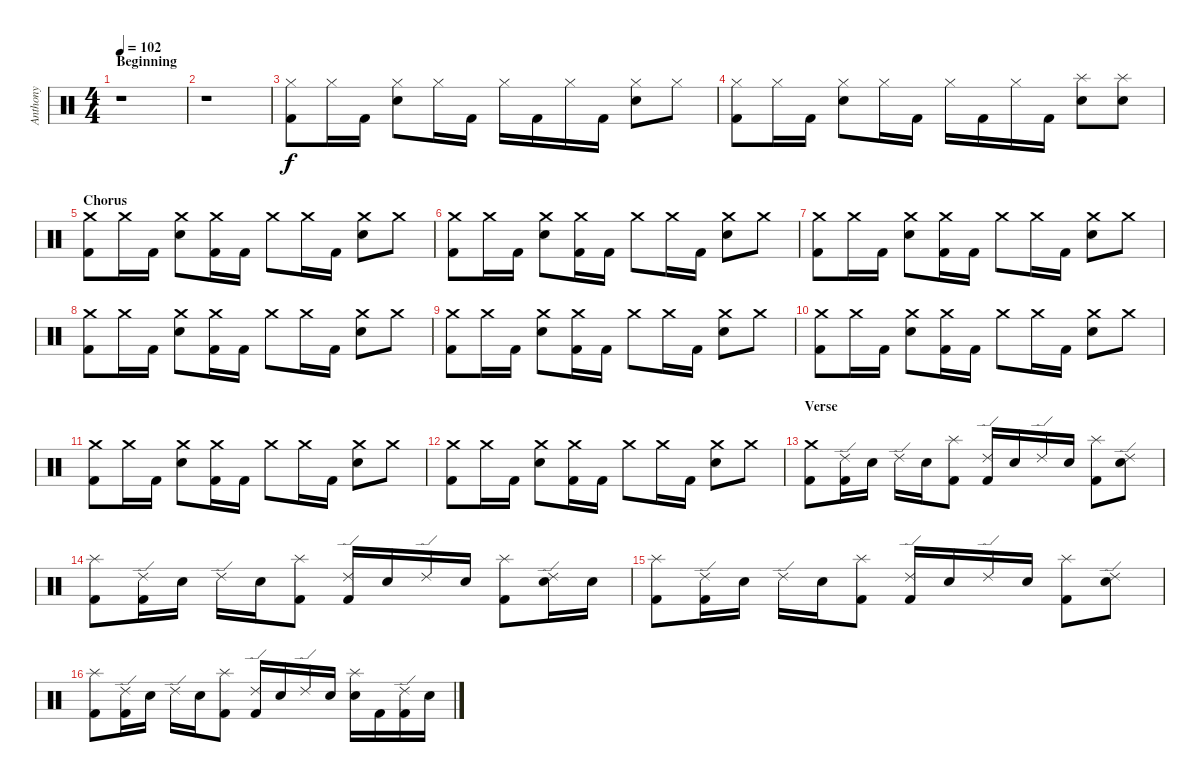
\track ("Anthony" "Anthony") {instrument percussion}
\staff {score}
\articulation defaults
\ts (4 4)
\section ("" "Beginning")
\tempo 102
\clef neutral
\ks c
r.1{dy f} |
r.1 |
("Hi-Hat (closed)" "Kick (hit) 2").8 "Hi-Hat (closed)".16 "Kick (hit) 2".16 ("Hi-Hat (closed)" "Electric Snare (hit)").8 "Hi-Hat (closed)".16 "Kick (hit) 2".16 "Hi-Hat (closed)".16 "Kick (hit) 2".16 "Hi-Hat (closed)".16 "Kick (hit) 2".16 ("Hi-Hat (closed)" "Electric Snare (hit)").8 "Hi-Hat (closed)".8 |
("Hi-Hat (closed)" "Kick (hit) 2").8 "Hi-Hat (closed)".16 "Kick (hit) 2".16 ("Hi-Hat (closed)" "Electric Snare (hit)").8 "Hi-Hat (closed)".16 "Kick (hit) 2".16 "Hi-Hat (closed)".16 "Kick (hit) 2".16 "Hi-Hat (closed)".16 "Kick (hit) 2".16 ("Splash (hit)" "Electric Snare (hit)").8 ("Splash (hit)" "Electric Snare (hit)").8 |
\section ("" "Chorus")
("Crash medium (hit)" "Kick (hit) 2").8 "Crash medium (hit)".16 "Kick (hit) 2".16 ("Crash medium (hit)" "Electric Snare (hit)").8 ("Crash medium (hit)" "Kick (hit) 2").16 "Kick (hit) 2".16 "Crash medium (hit)".8 "Crash medium (hit)".16 "Kick (hit) 2".16 ("Crash medium (hit)" "Electric Snare (hit)").8 "Crash medium (hit)".8 |
("Crash medium (hit)" "Kick (hit) 2").8 "Crash medium (hit)".16 "Kick (hit) 2".16 ("Crash medium (hit)" "Electric Snare (hit)").8 ("Crash medium (hit)" "Kick (hit) 2").16 "Kick (hit) 2".16 "Crash medium (hit)".8 "Crash medium (hit)".16 "Kick (hit) 2".16 ("Crash medium (hit)" "Electric Snare (hit)").8 "Crash medium (hit)".8 |
("Crash medium (hit)" "Kick (hit) 2").8 "Crash medium (hit)".16 "Kick (hit) 2".16 ("Crash medium (hit)" "Electric Snare (hit)").8 ("Crash medium (hit)" "Kick (hit) 2").16 "Kick (hit) 2".16 "Crash medium (hit)".8 "Crash medium (hit)".16 "Kick (hit) 2".16 ("Crash medium (hit)" "Electric Snare (hit)").8 "Crash medium (hit)".8 |
("Crash medium (hit)" "Kick (hit) 2").8 "Crash medium (hit)".16 "Kick (hit) 2".16 ("Crash medium (hit)" "Electric Snare (hit)").8 ("Crash medium (hit)" "Kick (hit) 2").16 "Kick (hit) 2".16 "Crash medium (hit)".8 "Crash medium (hit)".16 "Kick (hit) 2".16 ("Crash medium (hit)" "Electric Snare (hit)").8 "Crash medium (hit)".8 |
("Crash medium (hit)" "Kick (hit) 2").8 "Crash medium (hit)".16 "Kick (hit) 2".16 ("Crash medium (hit)" "Electric Snare (hit)").8 ("Crash medium (hit)" "Kick (hit) 2").16 "Kick (hit) 2".16 "Crash medium (hit)".8 "Crash medium (hit)".16 "Kick (hit) 2".16 ("Crash medium (hit)" "Electric Snare (hit)").8 "Crash medium (hit)".8 |
("Crash medium (hit)" "Kick (hit) 2").8 "Crash medium (hit)".16 "Kick (hit) 2".16 ("Crash medium (hit)" "Electric Snare (hit)").8 ("Crash medium (hit)" "Kick (hit) 2").16 "Kick (hit) 2".16 "Crash medium (hit)".8 "Crash medium (hit)".16 "Kick (hit) 2".16 ("Crash medium (hit)" "Electric Snare (hit)").8 "Crash medium (hit)".8 |
("Crash medium (hit)" "Kick (hit) 2").8 "Crash medium (hit)".16 "Kick (hit) 2".16 ("Crash medium (hit)" "Electric Snare (hit)").8 ("Crash medium (hit)" "Kick (hit) 2").16 "Kick (hit) 2".16 "Crash medium (hit)".8 "Crash medium (hit)".16 "Kick (hit) 2".16 ("Crash medium (hit)" "Electric Snare (hit)").8 "Crash medium (hit)".8 |
("Crash medium (hit)" "Kick (hit) 2").8 "Crash medium (hit)".16 "Kick (hit) 2".16 ("Crash medium (hit)" "Electric Snare (hit)").8 ("Crash medium (hit)" "Kick (hit) 2").16 "Kick (hit) 2".16 "Crash medium (hit)".8 "Crash medium (hit)".16 "Kick (hit) 2".16 ("Crash medium (hit)" "Electric Snare (hit)").8 "Crash medium (hit)".8 |
\section ("" "Verse")
("Crash medium (hit)" "Kick (hit) 2").8 ("Ride (edge) 2" "Kick (hit) 2").16 "Electric Snare (hit)".16 "Ride (edge) 2".16 "Electric Snare (hit)".16 ("Splash (hit)" "Kick (hit) 2").8 ("Ride (edge) 2" "Kick (hit) 2").16 "Electric Snare (hit)".16 "Ride (edge) 2".16 "Electric Snare (hit)".16 ("Splash (hit)" "Kick (hit) 2").8 ("Ride (edge) 2" "Electric Snare (hit)").8 |
("Splash (hit)" "Kick (hit) 2").8 ("Ride (edge) 2" "Kick (hit) 2").16 "Electric Snare (hit)".16 "Ride (edge) 2".16 "Electric Snare (hit)".16 ("Splash (hit)" "Kick (hit) 2").8 ("Ride (edge) 2" "Kick (hit) 2").16 "Electric Snare (hit)".16 "Ride (edge) 2".16 "Electric Snare (hit)".16 ("Splash (hit)" "Kick (hit) 2").8 ("Ride (edge) 2" "Electric Snare (hit)").16 "Electric Snare (hit)".16 |
("Splash (hit)" "Kick (hit) 2").8 ("Ride (edge) 2" "Kick (hit) 2").16 "Electric Snare (hit)".16 "Ride (edge) 2".16 "Electric Snare (hit)".16 ("Splash (hit)" "Kick (hit) 2").8 ("Ride (edge) 2" "Kick (hit) 2").16 "Electric Snare (hit)".16 "Ride (edge) 2".16 "Electric Snare (hit)".16 ("Splash (hit)" "Kick (hit) 2").8 ("Ride (edge) 2" "Electric Snare (hit)").8 |
("Splash (hit)" "Kick (hit) 2").8 ("Ride (edge) 2" "Kick (hit) 2").16 "Electric Snare (hit)".16 "Ride (edge) 2".16 "Electric Snare (hit)".16 ("Splash (hit)" "Kick (hit) 2").8 ("Ride (edge) 2" "Kick (hit) 2").16 "Electric Snare (hit)".16 "Ride (edge) 2".16 "Electric Snare (hit)".16 ("Splash (hit)" "Electric Snare (hit)").16 "Kick (hit) 2".16 ("Ride (edge) 2" "Kick (hit) 2").16 "Electric Snare (hit)".16
